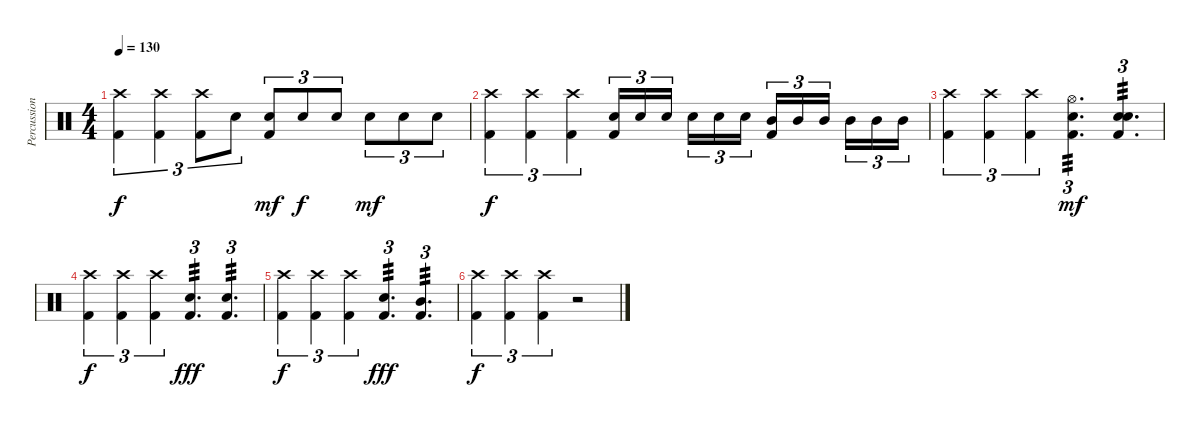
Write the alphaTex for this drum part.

\track ("Percussion" "Percussion") {instrument percussion}
\staff {score}
\articulation defaults
\ts (4 4)
\tempo 130
\clef neutral
\ks c
("Crash high (hit)" "Kick (hit) 2").4{tu (3 2) dy f} ("Crash high (hit)" "Kick (hit) 2").4{tu (3 2)} ("Crash high (hit)" "Kick (hit) 2").8{tu (3 2)} "Electric Snare (hit)".8{tu (3 2)} ("Electric Snare (hit)" "Kick (hit) 2").8{tu (3 2) dy mf} "Electric Snare (hit)".8{tu (3 2) dy f} "Electric Snare (hit)".8{tu (3 2)} "Electric Snare (hit)".8{tu (3 2) dy mf} "Electric Snare (hit)".8{tu (3 2)} "Electric Snare (hit)".8{tu (3 2)} |
("Crash high (hit)" "Kick (hit) 2").4{tu (3 2) dy f} ("Crash high (hit)" "Kick (hit) 2").4{tu (3 2)} ("Crash high (hit)" "Kick (hit) 2").4{tu (3 2)} ("Electric Snare (hit)" "Kick (hit) 2").16{tu (3 2)} "Electric Snare (hit)".16{tu (3 2)} "Electric Snare (hit)".16{tu (3 2) beam splitsecondary} "Electric Snare (hit)".16{tu (3 2)} "Electric Snare (hit)".16{tu (3 2)} "Electric Snare (hit)".16{tu (3 2)} ("Mid Tom (hit)" "Kick (hit) 2").16{tu (3 2)} "Mid Tom (hit)".16{tu (3 2)} "Mid Tom (hit)".16{tu (3 2) beam splitsecondary} "Mid Tom (hit)".16{tu (3 2)} "Mid Tom (hit)".16{tu (3 2)} "Mid Tom (hit)".16{tu (3 2)} |
("Crash high (hit)" "Kick (hit) 2").4{tu (3 2)} ("Crash high (hit)" "Kick (hit) 2").4{tu (3 2)} ("Crash high (hit)" "Kick (hit) 2").4{tu (3 2)} ("Hi-Hat (open)" "Electric Snare (hit)" "Kick (hit) 2").4{d tu (3 2) tp 3 dy mf} ("Electric Snare (hit)" "Electric Snare (hit)" "Kick (hit) 2").4{d tu (3 2) tp 3} |
("Crash high (hit)" "Kick (hit) 2").4{tu (3 2) dy f} ("Crash high (hit)" "Kick (hit) 2").4{tu (3 2)} ("Crash high (hit)" "Kick (hit) 2").4{tu (3 2)} ("Electric Snare (hit)" "Kick (hit) 2").4{d tu (3 2) tp 3 dy fff} ("Electric Snare (hit)" "Kick (hit) 2").4{d tu (3 2) tp 3} |
("Crash high (hit)" "Kick (hit) 2").4{tu (3 2) dy f} ("Crash high (hit)" "Kick (hit) 2").4{tu (3 2)} ("Crash high (hit)" "Kick (hit) 2").4{tu (3 2)} ("Electric Snare (hit)" "Kick (hit) 2").4{d tu (3 2) tp 3 dy fff} ("Mid Tom (hit)" "Kick (hit) 2").4{d tu (3 2) tp 3} |
("Crash high (hit)" "Kick (hit) 2").4{tu (3 2) dy f} ("Crash high (hit)" "Kick (hit) 2").4{tu (3 2)} ("Crash high (hit)" "Kick (hit) 2").4{tu (3 2)} r.2
